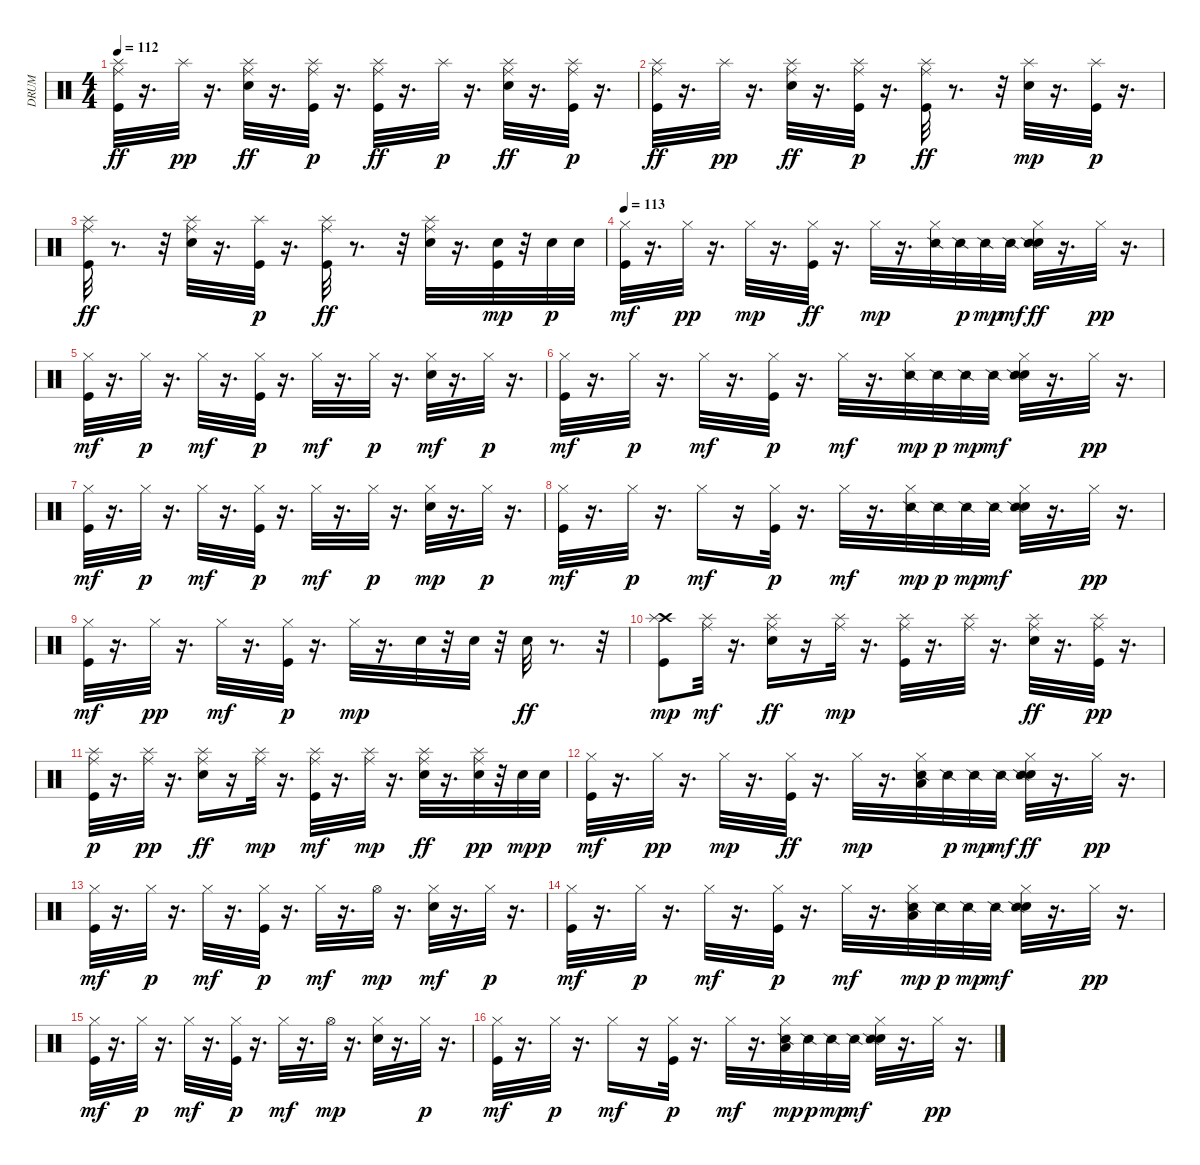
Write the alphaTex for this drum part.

\track ("DRUM" "DRUM") {instrument percussion}
\staff {score}
\articulation defaults
\ts (4 4)
\tempo 112
\clef neutral
\ks c
("Splash (hit)" "Ride (middle)" "Kick (hit)").32{dy ff} r.16{d} "Splash (hit)".32{dy pp} r.16{d} ("Splash (hit)" "Ride (middle)" "Snare (hit) 2").32{dy ff} r.16{d} ("Splash (hit)" "Kick (hit)" "Ride (middle)").32{dy p} r.16{d} ("Splash (hit)" "Ride (middle)" "Kick (hit)").32{dy ff} r.16{d} "Splash (hit)".32{dy p} r.16{d} ("Splash (hit)" "Ride (middle)" "Snare (hit) 2").32{dy ff} r.16{d} ("Splash (hit)" "Kick (hit)" "Ride (middle)").32{dy p} r.16{d} |
("Splash (hit)" "Ride (middle)" "Kick (hit)").32{dy ff} r.16{d} "Splash (hit)".32{dy pp} r.16{d} ("Splash (hit)" "Ride (middle)" "Snare (hit) 2").32{dy ff} r.16{d} ("Splash (hit)" "Kick (hit)" "Ride (middle)").32{dy p} r.16{d} ("Splash (hit)" "Ride (middle)" "Kick (hit)").32{dy ff} r.8{d} r.32 ("Snare (hit) 2" "Splash (hit)").32{dy mp} r.16{d} ("Kick (hit)" "Splash (hit)").32{dy p} r.16{d} |
("Splash (hit)" "Ride (middle)" "Kick (hit)").32{dy ff} r.8{d} r.32 ("Splash (hit)" "Ride (middle)" "Snare (hit) 2").32 r.16{d} ("Splash (hit)" "Kick (hit)").32{dy p} r.16{d} ("Splash (hit)" "Ride (middle)" "Kick (hit)").32{dy ff} r.8{d} r.32 ("Splash (hit)" "Ride (middle)" "Snare (hit) 2").32 r.16{d} ("Kick (hit)" "Snare (hit) 2").32{dy mp} r.32 "Snare (hit) 2".32{dy p} "Snare (hit) 2".32 |
\tempo 113
("Kick (hit)" "Hi-Hat (closed)").32{dy mf} r.16{d} "Hi-Hat (closed)".32{dy pp} r.16{d} "Hi-Hat (closed)".32{dy mp} r.16{d} ("Hi-Hat (closed)" "Kick (hit)").32{dy ff} r.16{d} "Hi-Hat (closed)".32{dy mp} r.16{d} ("Hi-Hat (closed)" "Snare (side stick) 2").32 "Snare (side stick) 2".32{dy p} "Snare (side stick) 2".32{dy mp} "Snare (side stick) 2".32{dy mf} ("Hi-Hat (closed)" "Snare (hit) 2" "Snare (side stick) 2").32{dy ff} r.16{d} "Hi-Hat (closed)".32{dy pp} r.16{d} |
("Kick (hit)" "Hi-Hat (closed)").32{dy mf} r.16{d} "Hi-Hat (closed)".32{dy p} r.16{d} "Hi-Hat (closed)".32{dy mf} r.16{d} ("Kick (hit)" "Hi-Hat (closed)").32{dy p} r.16{d} "Hi-Hat (closed)".32{dy mf} r.16{d} "Hi-Hat (closed)".32{dy p} r.16{d} ("Snare (hit) 2" "Hi-Hat (closed)").32{dy mf} r.16{d} "Hi-Hat (closed)".32{dy p} r.16{d} |
("Kick (hit)" "Hi-Hat (closed)").32{dy mf} r.16{d} "Hi-Hat (closed)".32{dy p} r.16{d} "Hi-Hat (closed)".32{dy mf} r.16{d} ("Kick (hit)" "Hi-Hat (closed)").32{dy p} r.16{d} "Hi-Hat (closed)".32{dy mf} r.16{d} ("Hi-Hat (closed)" "Snare (side stick) 2").32{dy mp} "Snare (side stick) 2".32{dy p} "Snare (side stick) 2".32{dy mp} "Snare (side stick) 2".32{dy mf} ("Snare (hit) 2" "Hi-Hat (closed)" "Snare (side stick) 2").32 r.16{d} "Hi-Hat (closed)".32{dy pp} r.16{d} |
("Kick (hit)" "Hi-Hat (closed)").32{dy mf} r.16{d} "Hi-Hat (closed)".32{dy p} r.16{d} "Hi-Hat (closed)".32{dy mf} r.16{d} ("Kick (hit)" "Hi-Hat (closed)").32{dy p} r.16{d} "Hi-Hat (closed)".32{dy mf} r.16{d} "Hi-Hat (closed)".32{dy p} r.16{d} ("Snare (hit) 2" "Hi-Hat (closed)").32{dy mp} r.16{d} "Hi-Hat (closed)".32{dy p} r.16{d} |
("Kick (hit)" "Hi-Hat (closed)").32{dy mf} r.16{d} "Hi-Hat (closed)".32{dy p} r.16{d} "Hi-Hat (closed)".16{dy mf} r.16 ("Kick (hit)" "Hi-Hat (closed)").32{dy p} r.16{d} "Hi-Hat (closed)".32{dy mf} r.16{d} ("Hi-Hat (closed)" "Snare (side stick) 2").32{dy mp} "Snare (side stick) 2".32{dy p} "Snare (side stick) 2".32{dy mp} "Snare (side stick) 2".32{dy mf} ("Snare (hit) 2" "Hi-Hat (closed)" "Snare (side stick) 2").32 r.16{d} "Hi-Hat (closed)".32{dy pp} r.16{d} |
("Kick (hit)" "Hi-Hat (closed)").32{dy mf} r.16{d} "Hi-Hat (closed)".32{dy pp} r.16{d} "Hi-Hat (closed)".32{dy mf} r.16{d} ("Kick (hit)" "Hi-Hat (closed)").32{dy p} r.16{d} "Hi-Hat (closed)".32{dy mp} r.16{d} "Snare (hit) 2".32 r.32 "Snare (hit) 2".32 r.32 "Snare (hit) 2".32{dy ff} r.8{d} r.32 |
("Kick (hit)" "Crash high (hit)" "Splash (hit)").8{dy mp} ("Splash (hit)" "Ride (middle)").32{dy mf} r.16{d} ("Splash (hit)" "Ride (middle)" "Snare (hit) 2").16{dy ff} r.16 ("Splash (hit)" "Ride (middle)").32{dy mp} r.16{d} ("Splash (hit)" "Kick (hit)" "Ride (middle)").32 r.16{d} ("Splash (hit)" "Ride (middle)").32 r.16{d} ("Ride (middle)" "Splash (hit)" "Snare (hit) 2").32{dy ff} r.16{d} ("Ride (middle)" "Kick (hit)" "Splash (hit)").32{dy pp} r.16{d} |
("Kick (hit)" "Ride (middle)" "Splash (hit)").32{dy p} r.16{d} ("Ride (middle)" "Splash (hit)").32{dy pp} r.16{d} ("Splash (hit)" "Ride (middle)" "Snare (hit) 2").16{dy ff} r.16 ("Splash (hit)" "Ride (middle)").32{dy mp} r.16{d} ("Splash (hit)" "Kick (hit)" "Ride (middle)").32{dy mf} r.16{d} ("Splash (hit)" "Ride (middle)").32{dy mp} r.16{d} ("Splash (hit)" "Ride (middle)" "Snare (hit) 2").32{dy ff} r.16{d} ("Ride (middle)" "Snare (hit) 2" "Splash (hit)").32{dy pp} r.32 "Snare (hit) 2".32{dy mp} "Snare (hit) 2".32{dy p} |
("Kick (hit)" "Hi-Hat (closed)").32{dy mf} r.16{d} "Hi-Hat (closed)".32{dy pp} r.16{d} "Hi-Hat (closed)".32{dy mp} r.16{d} ("Hi-Hat (closed)" "Kick (hit)").32{dy ff} r.16{d} "Hi-Hat (closed)".32{dy mp} r.16{d} ("Hi-Hat (closed)" "Low Tom (hit)" "Snare (side stick) 2").32 "Snare (side stick) 2".32{dy p} "Snare (side stick) 2".32{dy mp} "Snare (side stick) 2".32{dy mf} ("Hi-Hat (closed)" "Snare (hit) 2" "Snare (side stick) 2").32{dy ff} r.16{d} "Hi-Hat (closed)".32{dy pp} r.16{d} |
("Kick (hit)" "Hi-Hat (closed)").32{dy mf} r.16{d} "Hi-Hat (closed)".32{dy p} r.16{d} "Hi-Hat (closed)".32{dy mf} r.16{d} ("Kick (hit)" "Hi-Hat (closed)").32{dy p} r.16{d} "Hi-Hat (closed)".32{dy mf} r.16{d} "Hi-Hat (open)".32{dy mp} r.16{d} ("Snare (hit) 2" "Hi-Hat (closed)").32{dy mf} r.16{d} "Hi-Hat (closed)".32{dy p} r.16{d} |
("Kick (hit)" "Hi-Hat (closed)").32{dy mf} r.16{d} "Hi-Hat (closed)".32{dy p} r.16{d} "Hi-Hat (closed)".32{dy mf} r.16{d} ("Kick (hit)" "Hi-Hat (closed)").32{dy p} r.16{d} "Hi-Hat (closed)".32{dy mf} r.16{d} ("Hi-Hat (closed)" "Low Tom (hit)" "Snare (side stick) 2").32{dy mp} "Snare (side stick) 2".32{dy p} "Snare (side stick) 2".32{dy mp} "Snare (side stick) 2".32{dy mf} ("Snare (hit) 2" "Hi-Hat (closed)" "Snare (side stick) 2").32 r.16{d} "Hi-Hat (closed)".32{dy pp} r.16{d} |
("Kick (hit)" "Hi-Hat (closed)").32{dy mf} r.16{d} "Hi-Hat (closed)".32{dy p} r.16{d} "Hi-Hat (closed)".32{dy mf} r.16{d} ("Kick (hit)" "Hi-Hat (closed)").32{dy p} r.16{d} "Hi-Hat (closed)".32{dy mf} r.16{d} "Hi-Hat (open)".32{dy mp} r.16{d} ("Snare (hit) 2" "Hi-Hat (closed)").32 r.16{d} "Hi-Hat (closed)".32{dy p} r.16{d} |
("Kick (hit)" "Hi-Hat (closed)").32{dy mf} r.16{d} "Hi-Hat (closed)".32{dy p} r.16{d} "Hi-Hat (closed)".16{dy mf} r.16 ("Kick (hit)" "Hi-Hat (closed)").32{dy p} r.16{d} "Hi-Hat (closed)".32{dy mf} r.16{d} ("Hi-Hat (closed)" "Low Tom (hit)" "Snare (side stick) 2").32{dy mp} "Snare (side stick) 2".32{dy p} "Snare (side stick) 2".32{dy mp} "Snare (side stick) 2".32{dy mf} ("Snare (hit) 2" "Hi-Hat (closed)" "Snare (side stick) 2").32 r.16{d} "Hi-Hat (closed)".32{dy pp} r.16{d}
